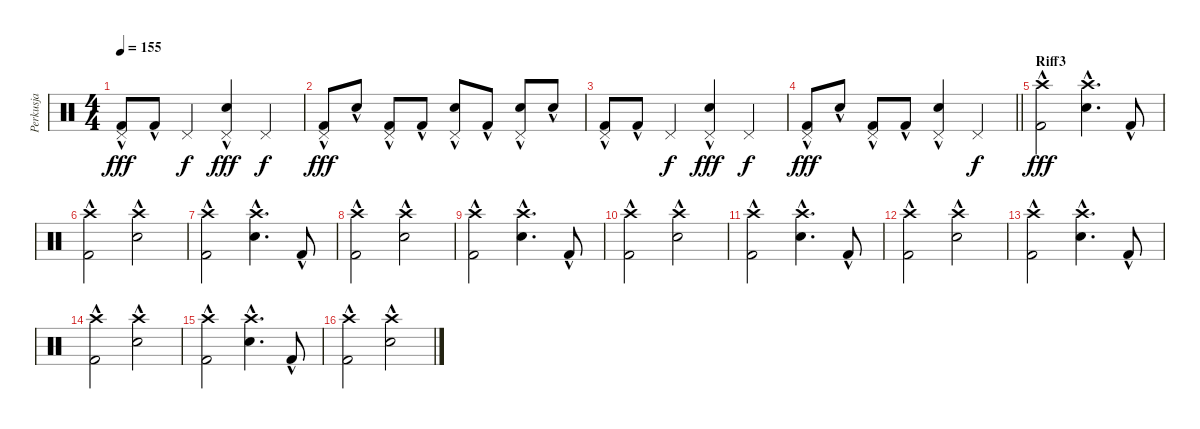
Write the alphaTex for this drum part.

\track ("Perkusja" "Perkusja") {instrument percussion}
\staff {score}
\articulation defaults
\ts (4 4)
\tempo 155
\clef neutral
\ks c
("Pedal Hi-Hat (hit)" "Kick (hit) 2"{hac}).8{dy fff} "Kick (hit) 2"{hac}.8 "Pedal Hi-Hat (hit)".4{dy f} ("Pedal Hi-Hat (hit)" "Electric Snare (hit)"{hac}).4{dy fff} "Pedal Hi-Hat (hit)".4{dy f} |
("Pedal Hi-Hat (hit)" "Kick (hit) 2"{hac}).8{dy fff} "Electric Snare (hit)"{hac}.8 ("Pedal Hi-Hat (hit)" "Kick (hit) 2"{hac}).8 "Kick (hit) 2"{hac}.8 ("Pedal Hi-Hat (hit)" "Electric Snare (hit)"{hac}).8 "Kick (hit) 2"{hac}.8 ("Pedal Hi-Hat (hit)" "Electric Snare (hit)"{hac}).8 "Electric Snare (hit)"{hac}.8 |
("Pedal Hi-Hat (hit)" "Kick (hit) 2"{hac}).8 "Kick (hit) 2"{hac}.8 "Pedal Hi-Hat (hit)".4{dy f} ("Pedal Hi-Hat (hit)" "Electric Snare (hit)"{hac}).4{dy fff} "Pedal Hi-Hat (hit)".4{dy f} |
\barLineRight lightlight
("Pedal Hi-Hat (hit)" "Kick (hit) 2"{hac}).8{dy fff} "Electric Snare (hit)"{hac}.8 ("Pedal Hi-Hat (hit)" "Kick (hit) 2"{hac}).8 "Kick (hit) 2"{hac}.8 ("Pedal Hi-Hat (hit)" "Electric Snare (hit)"{hac}).4 "Pedal Hi-Hat (hit)".4{dy f} |
\section ("" "Riff3")
("Crash high (hit)" "Kick (hit) 2"{hac}).2{dy fff} ("Crash high (hit)" "Electric Snare (hit)"{hac}).4{d} "Kick (hit) 2"{hac}.8 |
("Crash high (hit)" "Kick (hit) 2"{hac}).2 ("Crash high (hit)" "Electric Snare (hit)"{hac}).2 |
("Crash high (hit)" "Kick (hit) 2"{hac}).2 ("Crash high (hit)" "Electric Snare (hit)"{hac}).4{d} "Kick (hit) 2"{hac}.8 |
("Crash high (hit)" "Kick (hit) 2"{hac}).2 ("Crash high (hit)" "Electric Snare (hit)"{hac}).2 |
("Crash high (hit)" "Kick (hit) 2"{hac}).2 ("Crash high (hit)" "Electric Snare (hit)"{hac}).4{d} "Kick (hit) 2"{hac}.8 |
("Crash high (hit)" "Kick (hit) 2"{hac}).2 ("Crash high (hit)" "Electric Snare (hit)"{hac}).2 |
("Crash high (hit)" "Kick (hit) 2"{hac}).2 ("Crash high (hit)" "Electric Snare (hit)"{hac}).4{d} "Kick (hit) 2"{hac}.8 |
("Crash high (hit)" "Kick (hit) 2"{hac}).2 ("Crash high (hit)" "Electric Snare (hit)"{hac}).2 |
("Crash high (hit)" "Kick (hit) 2"{hac}).2 ("Crash high (hit)" "Electric Snare (hit)"{hac}).4{d} "Kick (hit) 2"{hac}.8 |
("Crash high (hit)" "Kick (hit) 2"{hac}).2 ("Crash high (hit)" "Electric Snare (hit)"{hac}).2 |
("Crash high (hit)" "Kick (hit) 2"{hac}).2 ("Crash high (hit)" "Electric Snare (hit)"{hac}).4{d} "Kick (hit) 2"{hac}.8 |
("Crash high (hit)" "Kick (hit) 2"{hac}).2 ("Crash high (hit)" "Electric Snare (hit)"{hac}).2
